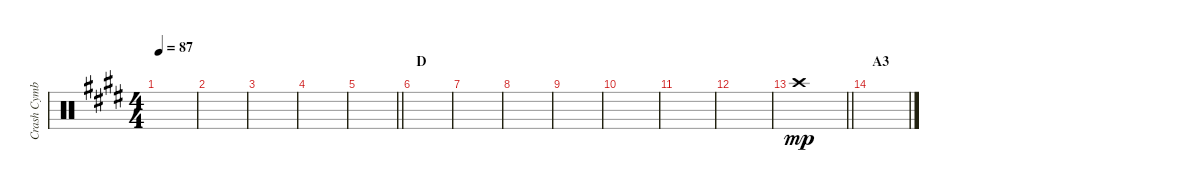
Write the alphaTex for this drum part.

\track ("Crash Cymbal" "Crash Cymb") {instrument percussion}
\staff {score}
\articulation defaults
\ts (4 4)
\tempo 87
\clef neutral
\ks e
|
|
|
|
\barLineRight lightlight
|
\section ("" "D")
|
|
|
|
|
|
|
\barLineRight lightlight "Crash high (hit)".1{dy mp}
|
\section ("" "A3")
